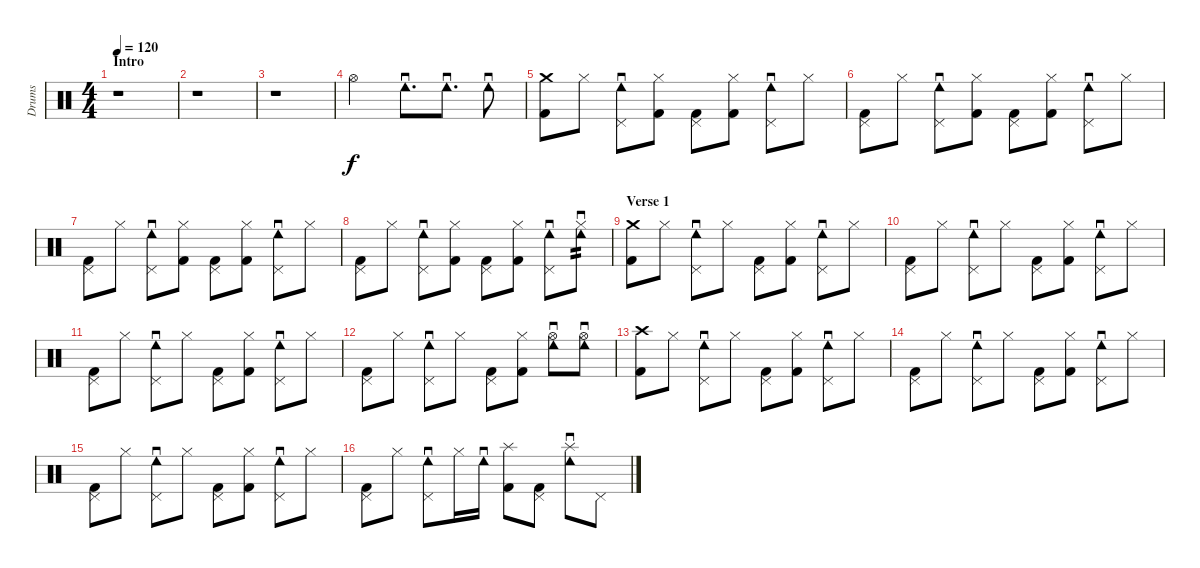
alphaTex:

\track ("Drums" "Drums") {instrument percussion}
\staff {score}
\articulation defaults
\ts (4 4)
\section ("" "Intro")
\tempo 120
\clef neutral
\ks c
r.1{dy f} |
r.1 |
r.1 |
"Hi-Hat (open)".2 "Tambourine (roll)".8{d} "Tambourine (roll)".8{d} "Tambourine (roll)".8 |
("Crash medium (hit)" "Kick (hit) 2").8 "Hi-Hat (closed)".8 ("Tambourine (roll)" "Pedal Hi-Hat (hit)").8 ("Hi-Hat (closed)" "Kick (hit) 2").8 ("Pedal Hi-Hat (hit)" "Kick (hit) 2").8 ("Hi-Hat (closed)" "Kick (hit) 2").8 ("Tambourine (roll)" "Pedal Hi-Hat (hit)").8 "Hi-Hat (closed)".8 |
("Pedal Hi-Hat (hit)" "Kick (hit) 2").8 "Hi-Hat (closed)".8 ("Tambourine (roll)" "Pedal Hi-Hat (hit)").8 ("Hi-Hat (closed)" "Kick (hit) 2").8 ("Pedal Hi-Hat (hit)" "Kick (hit) 2").8 ("Hi-Hat (closed)" "Kick (hit) 2").8 ("Tambourine (roll)" "Pedal Hi-Hat (hit)").8 "Hi-Hat (closed)".8 |
("Pedal Hi-Hat (hit)" "Kick (hit) 2").8 "Hi-Hat (closed)".8 ("Tambourine (roll)" "Pedal Hi-Hat (hit)").8 ("Hi-Hat (closed)" "Kick (hit) 2").8 ("Pedal Hi-Hat (hit)" "Kick (hit) 2").8 ("Hi-Hat (closed)" "Kick (hit) 2").8 ("Tambourine (roll)" "Pedal Hi-Hat (hit)").8 "Hi-Hat (closed)".8 |
("Pedal Hi-Hat (hit)" "Kick (hit) 2").8 "Hi-Hat (closed)".8 ("Tambourine (roll)" "Pedal Hi-Hat (hit)").8 ("Hi-Hat (closed)" "Kick (hit) 2").8 ("Pedal Hi-Hat (hit)" "Kick (hit) 2").8 ("Hi-Hat (closed)" "Kick (hit) 2").8 ("Tambourine (roll)" "Pedal Hi-Hat (hit)").8 ("Tambourine (roll)" "Hi-Hat (closed)").8{tp 2} |
\section ("" "Verse 1")
("Crash medium (hit)" "Kick (hit) 2").8 "Hi-Hat (closed)".8 ("Tambourine (roll)" "Pedal Hi-Hat (hit)").8 "Hi-Hat (closed)".8 ("Pedal Hi-Hat (hit)" "Kick (hit) 2").8 ("Hi-Hat (closed)" "Kick (hit) 2").8 ("Tambourine (roll)" "Pedal Hi-Hat (hit)").8 "Hi-Hat (closed)".8 |
("Pedal Hi-Hat (hit)" "Kick (hit) 2").8 "Hi-Hat (closed)".8 ("Tambourine (roll)" "Pedal Hi-Hat (hit)").8 "Hi-Hat (closed)".8 ("Pedal Hi-Hat (hit)" "Kick (hit) 2").8 ("Hi-Hat (closed)" "Kick (hit) 2").8 ("Tambourine (roll)" "Pedal Hi-Hat (hit)").8 "Hi-Hat (closed)".8 |
("Pedal Hi-Hat (hit)" "Kick (hit) 2").8 "Hi-Hat (closed)".8 ("Tambourine (roll)" "Pedal Hi-Hat (hit)").8 "Hi-Hat (closed)".8 ("Pedal Hi-Hat (hit)" "Kick (hit) 2").8 ("Hi-Hat (closed)" "Kick (hit) 2").8 ("Tambourine (roll)" "Pedal Hi-Hat (hit)").8 "Hi-Hat (closed)".8 |
("Pedal Hi-Hat (hit)" "Kick (hit) 2").8 "Hi-Hat (closed)".8 ("Tambourine (roll)" "Pedal Hi-Hat (hit)").8 "Hi-Hat (closed)".8 ("Pedal Hi-Hat (hit)" "Kick (hit) 2").8 ("Hi-Hat (closed)" "Kick (hit) 2").8 ("Tambourine (roll)" "Hi-Hat (open)").8 ("Tambourine (roll)" "Hi-Hat (open)").8 |
("Crash high (hit)" "Kick (hit) 2").8 "Hi-Hat (closed)".8 ("Tambourine (roll)" "Pedal Hi-Hat (hit)").8 "Hi-Hat (closed)".8 ("Pedal Hi-Hat (hit)" "Kick (hit) 2").8 ("Hi-Hat (closed)" "Kick (hit) 2").8 ("Tambourine (roll)" "Pedal Hi-Hat (hit)").8 "Hi-Hat (closed)".8 |
("Pedal Hi-Hat (hit)" "Kick (hit) 2").8 "Hi-Hat (closed)".8 ("Tambourine (roll)" "Pedal Hi-Hat (hit)").8 "Hi-Hat (closed)".8 ("Pedal Hi-Hat (hit)" "Kick (hit) 2").8 ("Hi-Hat (closed)" "Kick (hit) 2").8 ("Tambourine (roll)" "Pedal Hi-Hat (hit)").8 "Hi-Hat (closed)".8 |
("Pedal Hi-Hat (hit)" "Kick (hit) 2").8 "Hi-Hat (closed)".8 ("Tambourine (roll)" "Pedal Hi-Hat (hit)").8 "Hi-Hat (closed)".8 ("Pedal Hi-Hat (hit)" "Kick (hit) 2").8 ("Hi-Hat (closed)" "Kick (hit) 2").8 ("Tambourine (roll)" "Pedal Hi-Hat (hit)").8 "Hi-Hat (closed)".8 |
("Pedal Hi-Hat (hit)" "Kick (hit) 2").8 "Hi-Hat (closed)".8 ("Tambourine (roll)" "Pedal Hi-Hat (hit)").8 "Hi-Hat (closed)".16 "Tambourine (roll)".16 ("Splash (hit)" "Kick (hit) 2").8 ("Pedal Hi-Hat (hit)" "Kick (hit) 2").8 ("Tambourine (roll)" "Splash (hit)").8 "Pedal Hi-Hat (hit)".8
